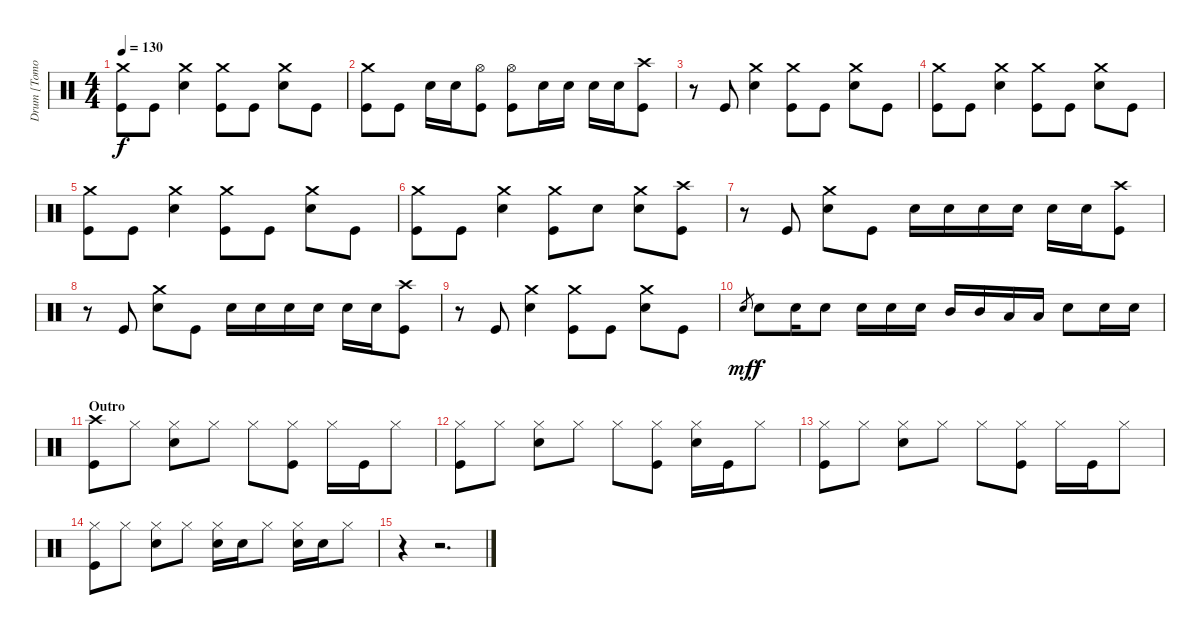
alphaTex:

\track ("Drum [Tomoya]" "Drum [Tomo") {instrument percussion}
\staff {score}
\articulation defaults
\ts (4 4)
\tempo 130
\clef neutral
\ks c
("Crash medium (hit)" "Kick (hit)").8{dy f} "Kick (hit)".8 ("Crash medium (hit)" "Snare (hit) 2").4 ("Crash medium (hit)" "Kick (hit)").8 "Kick (hit)".8 ("Snare (hit) 2" "Crash medium (hit)").8 "Kick (hit)".8 |
("Crash medium (hit)" "Kick (hit)").8 "Kick (hit)".8 "Snare (hit) 2".16 "Snare (hit) 2".16 ("Hi-Hat (open)" "Kick (hit)").8 ("Hi-Hat (open)" "Kick (hit)").8 "Snare (hit) 2".16 "Snare (hit) 2".16 "Snare (hit) 2".16 "Snare (hit) 2".16 ("Crash high (hit)" "Kick (hit)").8 |
r.8 "Kick (hit)".8 ("Crash medium (hit)" "Snare (hit) 2").4 ("Crash medium (hit)" "Kick (hit)").8 "Kick (hit)".8 ("Snare (hit) 2" "Crash medium (hit)").8 "Kick (hit)".8 |
("Crash medium (hit)" "Kick (hit)").8 "Kick (hit)".8 ("Crash medium (hit)" "Snare (hit) 2").4 ("Crash medium (hit)" "Kick (hit)").8 "Kick (hit)".8 ("Snare (hit) 2" "Crash medium (hit)").8 "Kick (hit)".8 |
("Crash medium (hit)" "Kick (hit)").8 "Kick (hit)".8 ("Crash medium (hit)" "Snare (hit) 2").4 ("Crash medium (hit)" "Kick (hit)").8 "Kick (hit)".8 ("Snare (hit) 2" "Crash medium (hit)").8 "Kick (hit)".8 |
("Crash medium (hit)" "Kick (hit)").8 "Kick (hit)".8 ("Crash medium (hit)" "Snare (hit) 2").4 ("Crash medium (hit)" "Kick (hit)").8 "Snare (hit) 2".8 ("Snare (hit) 2" "Crash medium (hit)").8 ("Crash high (hit)" "Kick (hit)").8 |
r.8 "Kick (hit)".8 ("Crash medium (hit)" "Snare (hit) 2").8 "Kick (hit)".8 "Snare (hit) 2".16 "Snare (hit) 2".16 "Snare (hit) 2".16 "Snare (hit) 2".16 "Snare (hit) 2".16 "Snare (hit) 2".16 ("Crash high (hit)" "Kick (hit)").8 |
r.8 "Kick (hit)".8 ("Crash medium (hit)" "Snare (hit) 2").8 "Kick (hit)".8 "Snare (hit) 2".16 "Snare (hit) 2".16 "Snare (hit) 2".16 "Snare (hit) 2".16 "Snare (hit) 2".16 "Snare (hit) 2".16 ("Crash high (hit)" "Kick (hit)").8 |
r.8 "Kick (hit)".8 ("Crash medium (hit)" "Snare (hit) 2").4 ("Crash medium (hit)" "Kick (hit)").8 "Kick (hit)".8 ("Snare (hit) 2" "Crash medium (hit)").8 "Kick (hit)".8 |
"Snare (hit)".8{gr dy mf} "Snare (hit) 2".8{dy f} "Snare (hit) 2".16 "Snare (hit) 2".8 "Snare (hit) 2".16 "Snare (hit) 2".16 "Snare (hit) 2".16 "Mid Tom (hit)".16 "Mid Tom (hit)".16 "Low Tom (hit)".16 "Low Tom (hit)".16 "Snare (hit) 2".8 "Snare (hit) 2".16 "Snare (hit) 2".16 |
\section ("" "Outro")
("Crash high (hit)" "Kick (hit)").8 "Hi-Hat (closed)".8 ("Hi-Hat (closed)" "Snare (hit) 2").8 "Hi-Hat (closed)".8 "Hi-Hat (closed)".8 ("Hi-Hat (closed)" "Kick (hit)").8 "Hi-Hat (closed)".16 "Kick (hit)".16 "Hi-Hat (closed)".8 |
("Hi-Hat (closed)" "Kick (hit)").8 "Hi-Hat (closed)".8 ("Hi-Hat (closed)" "Snare (hit) 2").8 "Hi-Hat (closed)".8 "Hi-Hat (closed)".8 ("Hi-Hat (closed)" "Kick (hit)").8 ("Hi-Hat (closed)" "Snare (hit) 2").16 "Kick (hit)".16 "Hi-Hat (closed)".8 |
("Hi-Hat (closed)" "Kick (hit)").8 "Hi-Hat (closed)".8 ("Hi-Hat (closed)" "Snare (hit) 2").8 "Hi-Hat (closed)".8 "Hi-Hat (closed)".8 ("Hi-Hat (closed)" "Kick (hit)").8 "Hi-Hat (closed)".16 "Kick (hit)".16 "Hi-Hat (closed)".8 |
("Hi-Hat (closed)" "Kick (hit)").8 "Hi-Hat (closed)".8 ("Hi-Hat (closed)" "Snare (hit) 2").8 "Hi-Hat (closed)".8 ("Hi-Hat (closed)" "Snare (hit) 2").16 "Snare (hit) 2".16 "Hi-Hat (closed)".8 ("Hi-Hat (closed)" "Snare (hit) 2").16 "Snare (hit) 2".16 "Hi-Hat (closed)".8 |
r.4 r.2{d}
